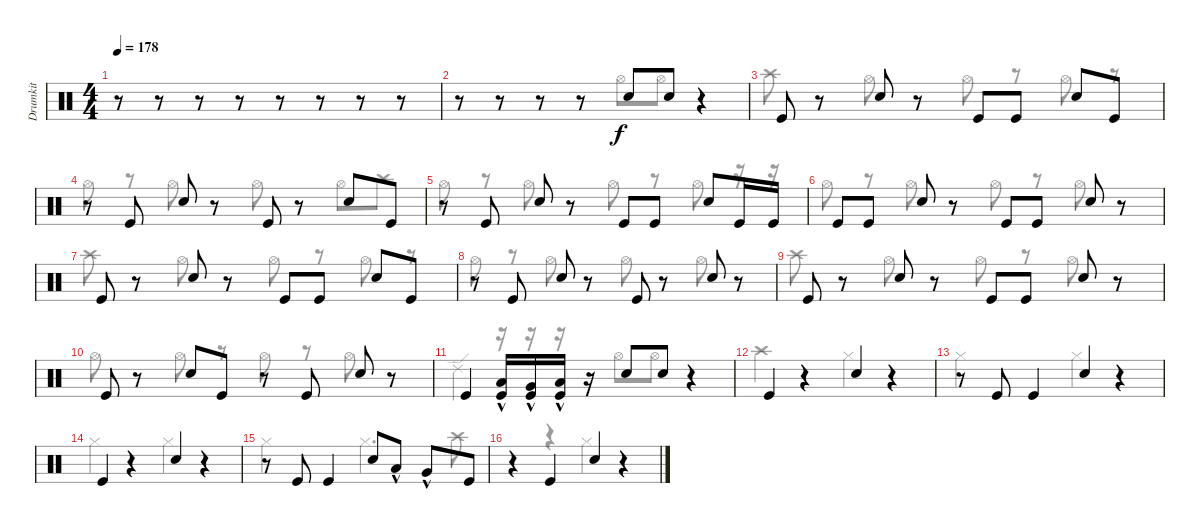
\track ("Drumkit" "Drumkit") {instrument percussion}
\staff {score}
\articulation defaults
\voice
\ts (4 4)
\tempo 178
\clef neutral
\ks c
r.8{dy f} r.8 r.8 r.8 r.8 r.8 r.8 r.8 |
r.8 r.8 r.8 r.8 "Snare (hit) 2".8 "Snare (hit) 2".8 r.4 |
\section ("" "")
"Kick (hit)".8 r.8 "Snare (hit) 2".8 r.8 "Kick (hit)".8 "Kick (hit)".8 "Snare (hit) 2".8 "Kick (hit)".8 |
r.8 "Kick (hit)".8 "Snare (hit) 2".8 r.8 "Kick (hit)".8 r.8 "Snare (hit) 2".8 "Kick (hit)".8 |
r.8 "Kick (hit)".8 "Snare (hit) 2".8 r.8 "Kick (hit)".8 "Kick (hit)".8 "Snare (hit) 2".8 "Kick (hit)".16 "Kick (hit)".16 |
"Kick (hit)".8 "Kick (hit)".8 "Snare (hit) 2".8 r.8 "Kick (hit)".8 "Kick (hit)".8 "Snare (hit) 2".8 r.8 |
"Kick (hit)".8 r.8 "Snare (hit) 2".8 r.8 "Kick (hit)".8 "Kick (hit)".8 "Snare (hit) 2".8 "Kick (hit)".8 |
r.8 "Kick (hit)".8 "Snare (hit) 2".8 r.8 "Kick (hit)".8 r.8 "Snare (hit) 2".8 r.8 |
"Kick (hit)".8 r.8 "Snare (hit) 2".8 r.8 "Kick (hit)".8 "Kick (hit)".8 "Snare (hit) 2".8 r.8 |
"Kick (hit)".8 r.8 "Snare (hit) 2".8 "Kick (hit)".8 r.8 "Kick (hit)".8 "Snare (hit) 2".8 r.8 |
"Kick (hit)".4 ("Kick (hit)" "Low Tom (hit)"{hac}).16 ("Kick (hit)" "Very Low Tom (hit)"{hac}).16 ("Kick (hit)" "Low Floor Tom (hit)"{hac}).16 r.16 "Snare (hit) 2".8 "Snare (hit) 2".8 r.4 |
\section ("" "")
"Kick (hit)".4 r.4 "Snare (hit) 2".4 r.4 |
r.8 "Kick (hit)".8 "Kick (hit)".4 "Snare (hit) 2".4 r.4 |
"Kick (hit)".4 r.4 "Snare (hit) 2".4 r.4 |
r.8 "Kick (hit)".8 "Kick (hit)".4 "Snare (hit) 2".8 "Low Tom (hit)"{hac}.8 "Very Low Tom (hit)"{hac}.8 "Kick (hit)".8 |
r.4 "Kick (hit)".4 "Snare (hit) 2".4 r.4
\voice
\clef neutral
\ottava regular
\simile none
\ks c
r.8{dy f} r.8 r.8 r.8 r.8 r.8 r.8 r.8 |
r.8 r.8 r.8 r.8 "Hi-Hat (open)".8 "Hi-Hat (open)".8 r.4 |
"Crash high (hit)".8 r.8 "Hi-Hat (open)".8 r.8 "Hi-Hat (open)".8 r.8 "Hi-Hat (open)".8 r.8 |
"Hi-Hat (open)".8 r.8 "Hi-Hat (open)".8 r.8 "Hi-Hat (open)".8 r.8 "Hi-Hat (open)".8 "Crash high (hit)".8 |
"Hi-Hat (open)".8 r.8 "Hi-Hat (open)".8 r.8 "Hi-Hat (open)".8 r.8 "Hi-Hat (open)".8 r.16 r.16 |
"Hi-Hat (open)".8 r.8 "Hi-Hat (open)".8 r.8 "Hi-Hat (open)".8 r.8 "Hi-Hat (open)".8 r.8 |
"Crash high (hit)".8 r.8 "Hi-Hat (open)".8 r.8 "Hi-Hat (open)".8 r.8 "Hi-Hat (open)".8 r.8 |
"Hi-Hat (open)".8 r.8 "Hi-Hat (open)".8 r.8 "Hi-Hat (open)".8 r.8 "Hi-Hat (open)".8 r.8 |
"Crash high (hit)".8 r.8 "Hi-Hat (open)".8 r.8 "Hi-Hat (open)".8 r.8 "Hi-Hat (open)".8 r.8 |
"Hi-Hat (open)".8 r.8 "Hi-Hat (open)".8 r.8 "Hi-Hat (open)".8 r.8 "Hi-Hat (open)".8 r.8 |
"Ride (edge) 2".4 r.16 r.16 r.16 r.16 "Hi-Hat (open)".8 "Hi-Hat (open)".8 r.4 |
"Crash high (hit)".4 r.4 "Hi-Hat (closed)".4 r.4 |
"Hi-Hat (closed)".2 "Hi-Hat (closed)".4 r.4 |
"Hi-Hat (closed)".4 r.4 "Hi-Hat (closed)".4 r.4 |
"Hi-Hat (closed)".2 "Hi-Hat (closed)".4{d} "Crash high (hit)".8 |
r.4 r.4 "Hi-Hat (closed)".4 r.4
